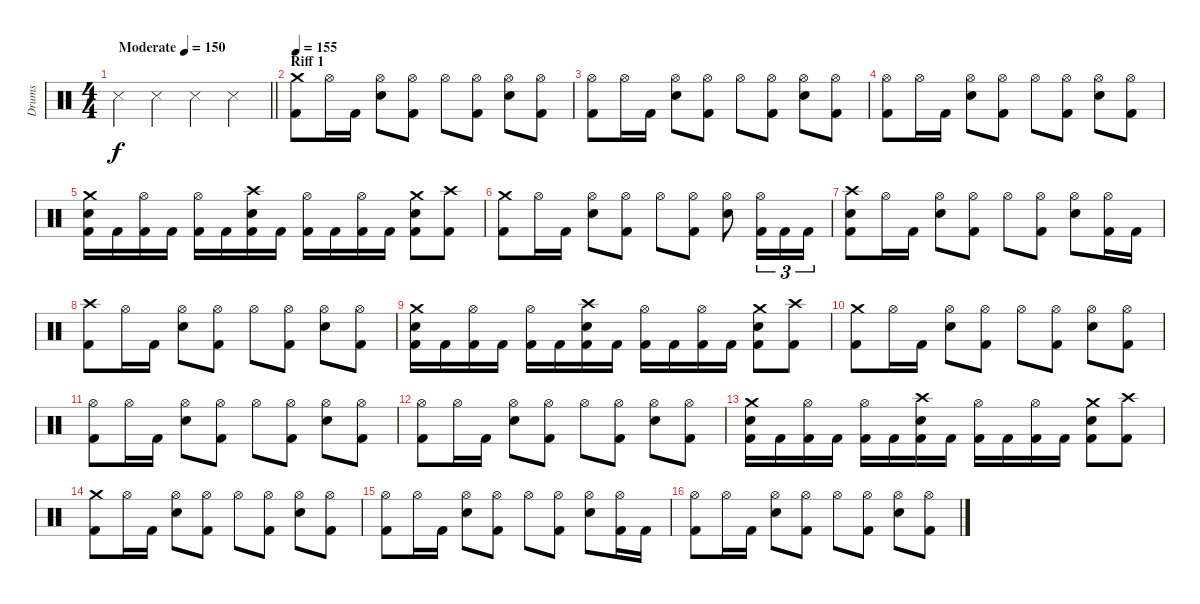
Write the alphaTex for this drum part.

\track ("Drums" "Drums") {instrument percussion}
\staff {score}
\articulation defaults
\ts (4 4)
\tempo (150 "Moderate")
\tempo 145
\tempo (150 "Moderate")
\clef neutral
\barLineRight lightlight
\ks c "Metronome (hit)".4{dy f} "Metronome (hit)".4 "Metronome (hit)".4 "Metronome (hit)".4
|
\section ("" "Riff 1")
\tempo 155
("Crash medium (hit)" "Kick (hit) 2").8 "Hi-Hat (open)".16 "Kick (hit) 2".16 ("Hi-Hat (open)" "Electric Snare (hit)").8 ("Hi-Hat (open)" "Kick (hit) 2").8 "Hi-Hat (open)".8 ("Hi-Hat (open)" "Kick (hit) 2").8 ("Hi-Hat (open)" "Electric Snare (hit)").8 ("Hi-Hat (open)" "Kick (hit) 2").8 |
("Hi-Hat (open)" "Kick (hit) 2").8 "Hi-Hat (open)".16 "Kick (hit) 2".16 ("Hi-Hat (open)" "Electric Snare (hit)").8 ("Hi-Hat (open)" "Kick (hit) 2").8 "Hi-Hat (open)".8 ("Hi-Hat (open)" "Kick (hit) 2").8 ("Hi-Hat (open)" "Electric Snare (hit)").8 ("Hi-Hat (open)" "Kick (hit) 2").8 |
("Hi-Hat (open)" "Kick (hit) 2").8 "Hi-Hat (open)".16 "Kick (hit) 2".16 ("Hi-Hat (open)" "Electric Snare (hit)").8 ("Hi-Hat (open)" "Kick (hit) 2").8 "Hi-Hat (open)".8 ("Hi-Hat (open)" "Kick (hit) 2").8 ("Hi-Hat (open)" "Electric Snare (hit)").8 ("Hi-Hat (open)" "Kick (hit) 2").8 |
("Crash medium (hit)" "Electric Snare (hit)" "Kick (hit) 2").16 "Kick (hit) 2".16 ("Hi-Hat (open)" "Kick (hit) 2").16 "Kick (hit) 2".16 ("Hi-Hat (open)" "Kick (hit) 2").16 "Kick (hit) 2".16 ("Crash high (hit)" "Electric Snare (hit)" "Kick (hit) 2").16 "Kick (hit) 2".16 ("Hi-Hat (open)" "Kick (hit) 2").16 "Kick (hit) 2".16 ("Hi-Hat (open)" "Kick (hit) 2").16 "Kick (hit) 2".16 ("Crash medium (hit)" "Electric Snare (hit)" "Kick (hit) 2").8 ("Crash high (hit)" "Kick (hit) 2").8 |
("Crash medium (hit)" "Kick (hit) 2").8 "Hi-Hat (open)".16 "Kick (hit) 2".16 ("Hi-Hat (open)" "Electric Snare (hit)").8 ("Hi-Hat (open)" "Kick (hit) 2").8 "Hi-Hat (open)".8 ("Hi-Hat (open)" "Kick (hit) 2").8 ("Hi-Hat (open)" "Electric Snare (hit)").8 ("Hi-Hat (open)" "Kick (hit) 2").16{tu (3 2)} "Kick (hit) 2".16{tu (3 2)} "Kick (hit) 2".16{tu (3 2)} |
("Crash high (hit)" "Electric Snare (hit)" "Kick (hit) 2").8 "Hi-Hat (open)".16 "Kick (hit) 2".16 ("Hi-Hat (open)" "Electric Snare (hit)").8 ("Hi-Hat (open)" "Kick (hit) 2").8 "Hi-Hat (open)".8 ("Hi-Hat (open)" "Kick (hit) 2").8 ("Hi-Hat (open)" "Electric Snare (hit)").8 ("Hi-Hat (open)" "Kick (hit) 2").16 "Kick (hit) 2".16 |
("Crash high (hit)" "Kick (hit) 2").8 "Hi-Hat (open)".16 "Kick (hit) 2".16 ("Hi-Hat (open)" "Electric Snare (hit)").8 ("Hi-Hat (open)" "Kick (hit) 2").8 "Hi-Hat (open)".8 ("Hi-Hat (open)" "Kick (hit) 2").8 ("Hi-Hat (open)" "Electric Snare (hit)").8 ("Hi-Hat (open)" "Kick (hit) 2").8 |
("Crash medium (hit)" "Electric Snare (hit)" "Kick (hit) 2").16 "Kick (hit) 2".16 ("Hi-Hat (open)" "Kick (hit) 2").16 "Kick (hit) 2".16 ("Hi-Hat (open)" "Kick (hit) 2").16 "Kick (hit) 2".16 ("Crash high (hit)" "Electric Snare (hit)" "Kick (hit) 2").16 "Kick (hit) 2".16 ("Hi-Hat (open)" "Kick (hit) 2").16 "Kick (hit) 2".16 ("Hi-Hat (open)" "Kick (hit) 2").16 "Kick (hit) 2".16 ("Crash medium (hit)" "Electric Snare (hit)" "Kick (hit) 2").8 ("Crash high (hit)" "Kick (hit) 2").8 |
("Crash medium (hit)" "Kick (hit) 2").8 "Hi-Hat (open)".16 "Kick (hit) 2".16 ("Hi-Hat (open)" "Electric Snare (hit)").8 ("Hi-Hat (open)" "Kick (hit) 2").8 "Hi-Hat (open)".8 ("Hi-Hat (open)" "Kick (hit) 2").8 ("Hi-Hat (open)" "Electric Snare (hit)").8 ("Hi-Hat (open)" "Kick (hit) 2").8 |
("Hi-Hat (open)" "Kick (hit) 2").8 "Hi-Hat (open)".16 "Kick (hit) 2".16 ("Hi-Hat (open)" "Electric Snare (hit)").8 ("Hi-Hat (open)" "Kick (hit) 2").8 "Hi-Hat (open)".8 ("Hi-Hat (open)" "Kick (hit) 2").8 ("Hi-Hat (open)" "Electric Snare (hit)").8 ("Hi-Hat (open)" "Kick (hit) 2").8 |
("Hi-Hat (open)" "Kick (hit) 2").8 "Hi-Hat (open)".16 "Kick (hit) 2".16 ("Hi-Hat (open)" "Electric Snare (hit)").8 ("Hi-Hat (open)" "Kick (hit) 2").8 "Hi-Hat (open)".8 ("Hi-Hat (open)" "Kick (hit) 2").8 ("Hi-Hat (open)" "Electric Snare (hit)").8 ("Hi-Hat (open)" "Kick (hit) 2").8 |
("Crash medium (hit)" "Electric Snare (hit)" "Kick (hit) 2").16 "Kick (hit) 2".16 ("Hi-Hat (open)" "Kick (hit) 2").16 "Kick (hit) 2".16 ("Hi-Hat (open)" "Kick (hit) 2").16 "Kick (hit) 2".16 ("Crash high (hit)" "Electric Snare (hit)" "Kick (hit) 2").16 "Kick (hit) 2".16 ("Hi-Hat (open)" "Kick (hit) 2").16 "Kick (hit) 2".16 ("Hi-Hat (open)" "Kick (hit) 2").16 "Kick (hit) 2".16 ("Crash medium (hit)" "Electric Snare (hit)" "Kick (hit) 2").8 ("Crash high (hit)" "Kick (hit) 2").8 |
("Crash medium (hit)" "Kick (hit) 2").8 "Hi-Hat (open)".16 "Kick (hit) 2".16 ("Hi-Hat (open)" "Electric Snare (hit)").8 ("Hi-Hat (open)" "Kick (hit) 2").8 "Hi-Hat (open)".8 ("Hi-Hat (open)" "Kick (hit) 2").8 ("Hi-Hat (open)" "Electric Snare (hit)").8 ("Hi-Hat (open)" "Kick (hit) 2").8 |
("Hi-Hat (open)" "Kick (hit) 2").8 "Hi-Hat (open)".16 "Kick (hit) 2".16 ("Hi-Hat (open)" "Electric Snare (hit)").8 ("Hi-Hat (open)" "Kick (hit) 2").8 "Hi-Hat (open)".8 ("Hi-Hat (open)" "Kick (hit) 2").8 ("Hi-Hat (open)" "Electric Snare (hit)").8 ("Hi-Hat (open)" "Kick (hit) 2").16 "Kick (hit) 2".16 |
("Hi-Hat (open)" "Kick (hit) 2").8 "Hi-Hat (open)".16 "Kick (hit) 2".16 ("Hi-Hat (open)" "Electric Snare (hit)").8 ("Hi-Hat (open)" "Kick (hit) 2").8 "Hi-Hat (open)".8 ("Hi-Hat (open)" "Kick (hit) 2").8 ("Hi-Hat (open)" "Electric Snare (hit)").8 ("Hi-Hat (open)" "Kick (hit) 2").8
